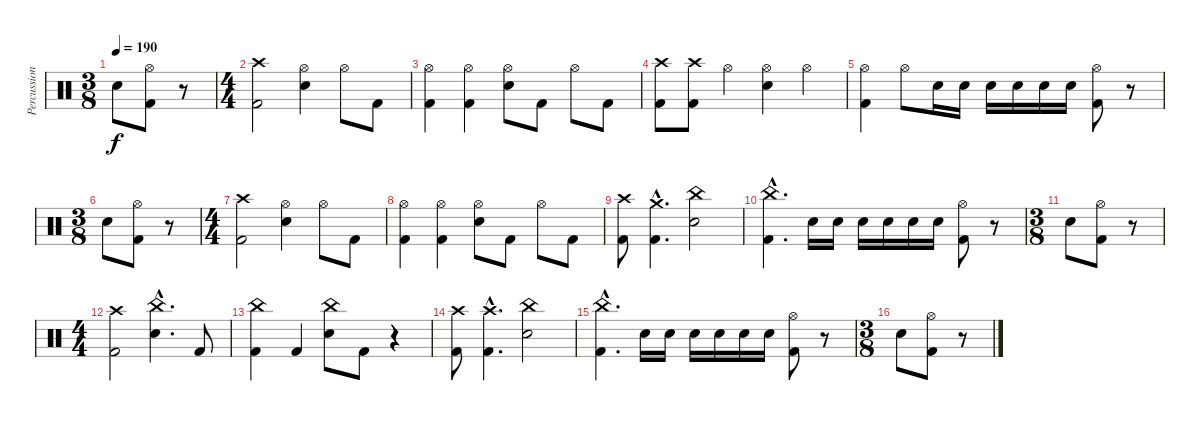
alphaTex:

\track ("Percussion" "Percussion") {instrument percussion}
\staff {score}
\articulation defaults
\ts (3 8)
\tempo 190
\clef neutral
\ks c "Electric Snare (hit)".8{dy f volume 13}
("Hi-Hat (open)" "Kick (hit) 2").8 r.8{volume 0} |
\ts (4 4)
("Crash high (hit)" "Kick (hit) 2").2{volume 13} ("Hi-Hat (open)" "Electric Snare (hit)").4 "Hi-Hat (open)".8 "Kick (hit) 2".8 |
("Kick (hit) 2" "Hi-Hat (open)").4 ("Hi-Hat (open)" "Kick (hit) 2").4 ("Hi-Hat (open)" "Electric Snare (hit)").8 "Kick (hit) 2".8 "Hi-Hat (open)".8 "Kick (hit) 2".8 |
("Crash high (hit)" "Kick (hit) 2").8 ("Kick (hit) 2" "Crash high (hit)").8 "Hi-Hat (open)".4 ("Hi-Hat (open)" "Electric Snare (hit)").4 "Hi-Hat (open)".4 |
("Hi-Hat (open)" "Kick (hit) 2").4 "Hi-Hat (open)".8 "Electric Snare (hit)".16 "Electric Snare (hit)".16 "Electric Snare (hit)".16 "Electric Snare (hit)".16 "Electric Snare (hit)".16 "Electric Snare (hit)".16 ("Hi-Hat (open)" "Kick (hit) 2").8 r.8{volume 0} |
\ts (3 8)
"Electric Snare (hit)".8{volume 13} ("Hi-Hat (open)" "Kick (hit) 2").8 r.8{volume 0} |
\ts (4 4)
("Crash high (hit)" "Kick (hit) 2").2{volume 13} ("Hi-Hat (open)" "Electric Snare (hit)").4 "Hi-Hat (open)".8 "Kick (hit) 2".8 |
("Kick (hit) 2" "Hi-Hat (open)").4 ("Hi-Hat (open)" "Kick (hit) 2").4 ("Hi-Hat (open)" "Electric Snare (hit)").8 "Kick (hit) 2".8 "Hi-Hat (open)".8 "Kick (hit) 2".8 |
("Crash high (hit)" "Kick (hit) 2").8 ("Crash medium (hit)"{hac} "Kick (hit) 2"{hac}).4{d} ("China (hit)" "Electric Snare (hit)").2 |
("China (hit)"{hac} "Kick (hit) 2"{hac}).4{d} "Electric Snare (hit)".16 "Electric Snare (hit)".16 "Electric Snare (hit)".16 "Electric Snare (hit)".16 "Electric Snare (hit)".16 "Electric Snare (hit)".16 ("Hi-Hat (open)" "Kick (hit) 2").8 r.8{volume 0} |
\ts (3 8)
"Electric Snare (hit)".8{volume 13} ("Hi-Hat (open)" "Kick (hit) 2").8 r.8{volume 0} |
\ts (4 4)
("Crash high (hit)" "Kick (hit) 2").2{volume 13} ("China (hit)"{hac} "Electric Snare (hit)"{hac}).4{d} "Kick (hit) 2".8 |
("Kick (hit) 2" "China (hit)").4 "Kick (hit) 2".4 ("China (hit)" "Electric Snare (hit)").8 "Kick (hit) 2".8 r.4 |
("Crash high (hit)" "Kick (hit) 2").8 ("Crash high (hit)"{hac} "Kick (hit) 2"{hac}).4{d} ("China (hit)" "Electric Snare (hit)").2 |
("China (hit)"{hac} "Kick (hit) 2"{hac}).4{d} "Electric Snare (hit)".16 "Electric Snare (hit)".16 "Electric Snare (hit)".16 "Electric Snare (hit)".16 "Electric Snare (hit)".16 "Electric Snare (hit)".16 ("Hi-Hat (open)" "Kick (hit) 2").8 r.8{volume 0} |
\ts (3 8)
"Electric Snare (hit)".8{volume 13} ("Hi-Hat (open)" "Kick (hit) 2").8 r.8{volume 0}
